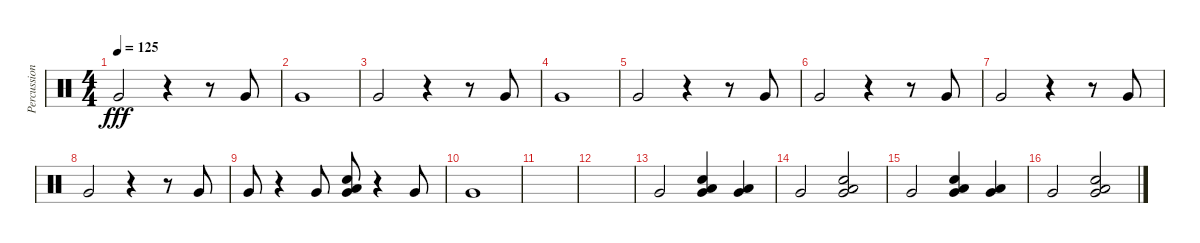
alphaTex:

\track ("Percussion" "Percussion") {instrument percussion}
\staff {score}
\articulation defaults
\ts (4 4)
\tempo 125
\clef neutral
\ks c "Very Low Tom (hit)".2{dy fff}
r.4 r.8 "Very Low Tom (hit)".8 |
"Very Low Tom (hit)".1 |
"Very Low Tom (hit)".2 r.4 r.8 "Very Low Tom (hit)".8 |
"Very Low Tom (hit)".1 |
"Very Low Tom (hit)".2 r.4 r.8 "Very Low Tom (hit)".8 |
"Very Low Tom (hit)".2 r.4 r.8 "Very Low Tom (hit)".8 |
"Very Low Tom (hit)".2 r.4 r.8 "Very Low Tom (hit)".8 |
"Very Low Tom (hit)".2 r.4 r.8 "Very Low Tom (hit)".8 |
"Very Low Tom (hit)".8 r.4 "Very Low Tom (hit)".8 ("Very Low Tom (hit)" "Low Floor Tom (hit)" "Snare (hit) 2").8 r.4 "Very Low Tom (hit)".8 |
"Very Low Tom (hit)".1 |
|
|
"Very Low Tom (hit)".2 ("Very Low Tom (hit)" "Snare (hit) 2" "Low Floor Tom (hit)").4 ("Very Low Tom (hit)" "Low Floor Tom (hit)").4 |
"Very Low Tom (hit)".2 ("Very Low Tom (hit)" "Snare (hit) 2" "Low Floor Tom (hit)").2 |
"Very Low Tom (hit)".2 ("Very Low Tom (hit)" "Snare (hit) 2" "Low Floor Tom (hit)").4 ("Very Low Tom (hit)" "Low Floor Tom (hit)").4 |
"Very Low Tom (hit)".2 ("Very Low Tom (hit)" "Snare (hit) 2" "Low Floor Tom (hit)").2
